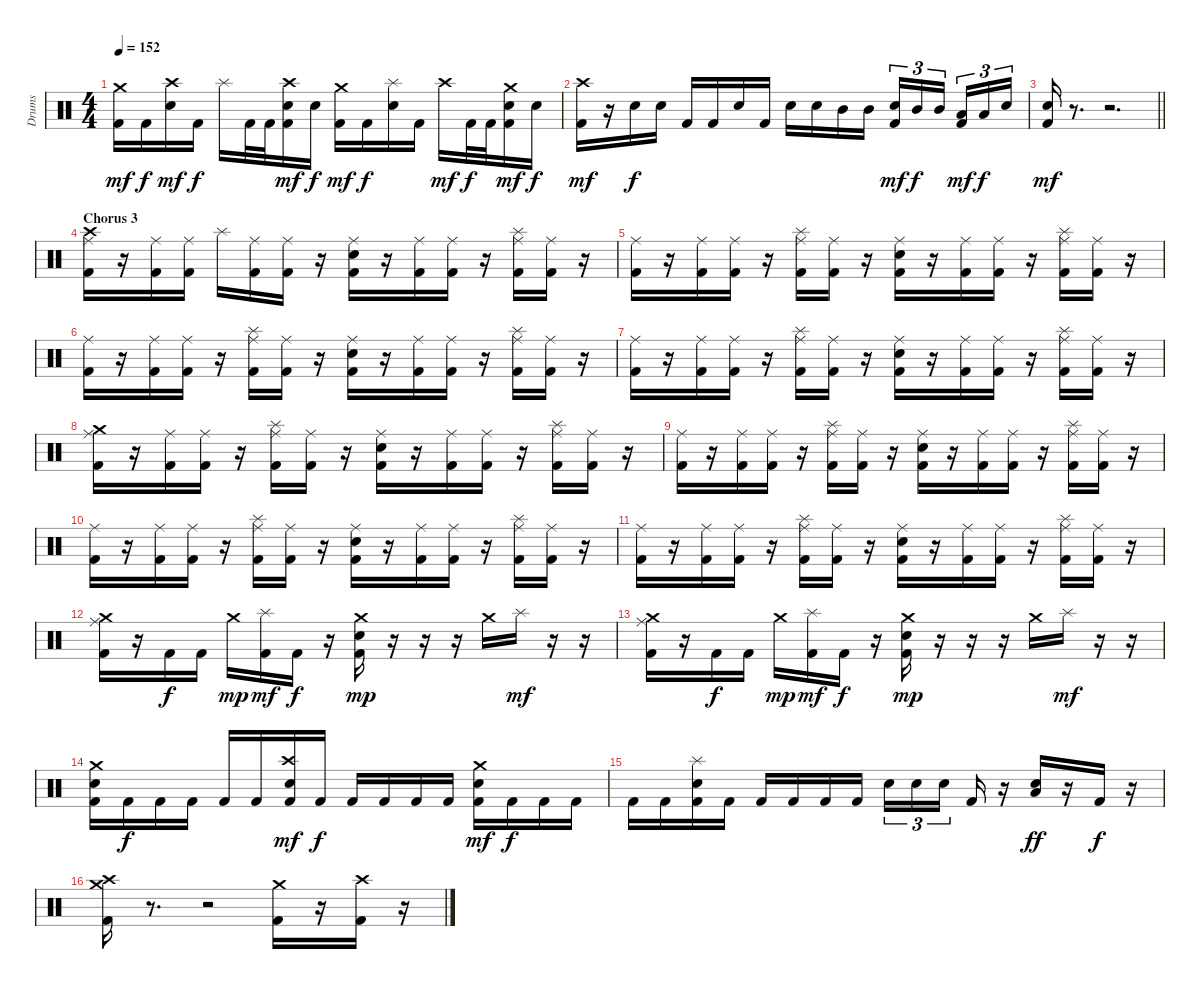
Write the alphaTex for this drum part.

\track ("Drums" "Drums") {instrument percussion}
\staff {score}
\articulation defaults
\ts (4 4)
\tempo 152
\clef neutral
\ks c
("Crash medium (hit)" "Kick (hit) 2").16{dy mf} "Kick (hit) 2".16{dy f} ("Crash high (hit)" "Snare (hit) 2").16{dy mf} "Kick (hit) 2".16{dy f} "Splash (hit)".16 "Kick (hit) 2".32 "Kick (hit) 2".32 ("Crash high (hit)" "Snare (hit) 2" "Kick (hit) 2").16{dy mf} "Snare (hit) 2".16{dy f} ("Crash medium (hit)" "Kick (hit) 2").16{dy mf} "Kick (hit) 2".16{dy f} ("Splash (hit)" "Snare (hit) 2").16 "Kick (hit) 2".16 "Crash high (hit)".16{dy mf} "Kick (hit) 2".32{dy f} "Kick (hit) 2".32 ("Crash medium (hit)" "Snare (hit) 2" "Kick (hit) 2").16{dy mf} "Snare (hit) 2".16{dy f} |
("Crash high (hit)" "Kick (hit) 2").16{dy mf} r.16 "Snare (hit) 2".16{dy f} "Snare (hit) 2".16 "Kick (hit) 2".16 "Kick (hit) 2".16 "Snare (hit) 2".16 "Kick (hit) 2".16 "Snare (hit) 2".16 "Snare (hit) 2".16 "Mid Tom (hit)".16 "Mid Tom (hit)".16 ("Snare (hit) 2" "Kick (hit) 2").16{tu (3 2) dy mf} "Mid Tom (hit)".16{tu (3 2) dy f} "Mid Tom (hit)".16{tu (3 2)} ("Low Tom (hit)" "Kick (hit) 2").16{tu (3 2) dy mf} "Low Tom (hit)".16{tu (3 2) dy f} "Snare (hit) 2".16{tu (3 2)} |
\barLineRight lightlight
("Snare (hit) 2" "Kick (hit) 2").16{dy mf} r.8{d} r.2{d} |
\section ("" "Chorus 3")
("Crash high (hit)" "Ride (middle)" "Kick (hit) 2").16 r.16 ("Ride (middle)" "Kick (hit) 2").16 ("Ride (middle)" "Kick (hit) 2").16 "Splash (hit)".16 ("Ride (middle)" "Kick (hit) 2").16 ("Ride (middle)" "Kick (hit) 2").16 r.16 ("Ride (middle)" "Snare (hit) 2" "Kick (hit) 2").16 r.16 ("Ride (middle)" "Kick (hit) 2").16 ("Ride (middle)" "Kick (hit) 2").16 r.16 ("Splash (hit)" "Ride (middle)" "Kick (hit) 2").16 ("Ride (middle)" "Kick (hit) 2").16 r.16 |
("Ride (middle)" "Kick (hit) 2").16 r.16 ("Ride (middle)" "Kick (hit) 2").16 ("Ride (middle)" "Kick (hit) 2").16 r.16 ("Splash (hit)" "Ride (middle)" "Kick (hit) 2").16 ("Ride (middle)" "Kick (hit) 2").16 r.16 ("Ride (middle)" "Snare (hit) 2" "Kick (hit) 2").16 r.16 ("Ride (middle)" "Kick (hit) 2").16 ("Ride (middle)" "Kick (hit) 2").16 r.16 ("Splash (hit)" "Ride (middle)" "Kick (hit) 2").16 ("Ride (middle)" "Kick (hit) 2").16 r.16 |
("Ride (middle)" "Kick (hit) 2").16 r.16 ("Ride (middle)" "Kick (hit) 2").16 ("Ride (middle)" "Kick (hit) 2").16 r.16 ("Splash (hit)" "Ride (middle)" "Kick (hit) 2").16 ("Ride (middle)" "Kick (hit) 2").16 r.16 ("Ride (middle)" "Snare (hit) 2" "Kick (hit) 2").16 r.16 ("Ride (middle)" "Kick (hit) 2").16 ("Ride (middle)" "Kick (hit) 2").16 r.16 ("Splash (hit)" "Ride (middle)" "Kick (hit) 2").16 ("Ride (middle)" "Kick (hit) 2").16 r.16 |
("Ride (middle)" "Kick (hit) 2").16 r.16 ("Ride (middle)" "Kick (hit) 2").16 ("Ride (middle)" "Kick (hit) 2").16 r.16 ("Splash (hit)" "Ride (middle)" "Kick (hit) 2").16 ("Ride (middle)" "Kick (hit) 2").16 r.16 ("Ride (middle)" "Snare (hit) 2" "Kick (hit) 2").16 r.16 ("Ride (middle)" "Kick (hit) 2").16 ("Ride (middle)" "Kick (hit) 2").16 r.16 ("Splash (hit)" "Ride (middle)" "Kick (hit) 2").16 ("Ride (middle)" "Kick (hit) 2").16 r.16 |
("Crash medium (hit)" "Ride (middle)" "Kick (hit) 2").16 r.16 ("Ride (middle)" "Kick (hit) 2").16 ("Ride (middle)" "Kick (hit) 2").16 r.16 ("Splash (hit)" "Ride (middle)" "Kick (hit) 2").16 ("Ride (middle)" "Kick (hit) 2").16 r.16 ("Ride (middle)" "Snare (hit) 2" "Kick (hit) 2").16 r.16 ("Ride (middle)" "Kick (hit) 2").16 ("Ride (middle)" "Kick (hit) 2").16 r.16 ("Splash (hit)" "Ride (middle)" "Kick (hit) 2").16 ("Ride (middle)" "Kick (hit) 2").16 r.16 |
("Ride (middle)" "Kick (hit) 2").16 r.16 ("Ride (middle)" "Kick (hit) 2").16 ("Ride (middle)" "Kick (hit) 2").16 r.16 ("Splash (hit)" "Ride (middle)" "Kick (hit) 2").16 ("Ride (middle)" "Kick (hit) 2").16 r.16 ("Ride (middle)" "Snare (hit) 2" "Kick (hit) 2").16 r.16 ("Ride (middle)" "Kick (hit) 2").16 ("Ride (middle)" "Kick (hit) 2").16 r.16 ("Splash (hit)" "Ride (middle)" "Kick (hit) 2").16 ("Ride (middle)" "Kick (hit) 2").16 r.16 |
("Ride (middle)" "Kick (hit) 2").16 r.16 ("Ride (middle)" "Kick (hit) 2").16 ("Ride (middle)" "Kick (hit) 2").16 r.16 ("Splash (hit)" "Ride (middle)" "Kick (hit) 2").16 ("Ride (middle)" "Kick (hit) 2").16 r.16 ("Ride (middle)" "Snare (hit) 2" "Kick (hit) 2").16 r.16 ("Ride (middle)" "Kick (hit) 2").16 ("Ride (middle)" "Kick (hit) 2").16 r.16 ("Splash (hit)" "Ride (middle)" "Kick (hit) 2").16 ("Ride (middle)" "Kick (hit) 2").16 r.16 |
("Ride (middle)" "Kick (hit) 2").16 r.16 ("Ride (middle)" "Kick (hit) 2").16 ("Ride (middle)" "Kick (hit) 2").16 r.16 ("Splash (hit)" "Ride (middle)" "Kick (hit) 2").16 ("Ride (middle)" "Kick (hit) 2").16 r.16 ("Ride (middle)" "Snare (hit) 2" "Kick (hit) 2").16 r.16 ("Ride (middle)" "Kick (hit) 2").16 ("Ride (middle)" "Kick (hit) 2").16 r.16 ("Splash (hit)" "Ride (middle)" "Kick (hit) 2").16 ("Ride (middle)" "Kick (hit) 2").16 r.16 |
("Crash medium (hit)" "Ride (middle)" "Kick (hit) 2").16 r.16 "Kick (hit) 2".16{dy f} "Kick (hit) 2".16 "Crash medium (hit)".16{dy mp} ("Splash (hit)" "Kick (hit) 2").16{dy mf} "Kick (hit) 2".16{dy f} r.16 ("Crash medium (hit)" "Snare (hit) 2" "Kick (hit) 2").16{dy mp} r.16 r.16 r.16 "Crash medium (hit)".16 "Splash (hit)".16{dy mf} r.16 r.16 |
("Crash medium (hit)" "Ride (middle)" "Kick (hit) 2").16 r.16 "Kick (hit) 2".16{dy f} "Kick (hit) 2".16 "Crash medium (hit)".16{dy mp} ("Splash (hit)" "Kick (hit) 2").16{dy mf} "Kick (hit) 2".16{dy f} r.16 ("Crash medium (hit)" "Snare (hit) 2" "Kick (hit) 2").16{dy mp} r.16 r.16 r.16 "Crash medium (hit)".16 "Splash (hit)".16{dy mf} r.16 r.16 |
("Crash medium (hit)" "Snare (hit) 2" "Kick (hit) 2").16 "Kick (hit) 2".16{dy f} "Kick (hit) 2".16 "Kick (hit) 2".16 "Kick (hit) 2".16 "Kick (hit) 2".16 ("Crash high (hit)" "Snare (hit) 2" "Kick (hit) 2").16{dy mf} "Kick (hit) 2".16{dy f} "Kick (hit) 2".16 "Kick (hit) 2".16 "Kick (hit) 2".16 "Kick (hit) 2".16 ("Crash medium (hit)" "Snare (hit) 2" "Kick (hit) 2").16{dy mf} "Kick (hit) 2".16{dy f} "Kick (hit) 2".16 "Kick (hit) 2".16 |
"Kick (hit) 2".16 "Kick (hit) 2".16 ("Splash (hit)" "Snare (hit) 2" "Kick (hit) 2").16 "Kick (hit) 2".16 "Kick (hit) 2".16 "Kick (hit) 2".16 "Kick (hit) 2".16 "Kick (hit) 2".16 "Snare (hit) 2".16{tu (3 2)} "Snare (hit) 2".16{tu (3 2)} "Snare (hit) 2".16{tu (3 2)} "Kick (hit) 2".16 r.16 ("Low Floor Tom (hit)" "Snare (hit) 2").16{dy ff} r.16 "Kick (hit) 2".16{dy f} r.16 |
("Crash medium (hit)" "Crash high (hit)" "Kick (hit) 2").16 r.8{d} r.2 ("Crash medium (hit)" "Kick (hit) 2").16 r.16 ("Crash high (hit)" "Kick (hit) 2").16 r.16
